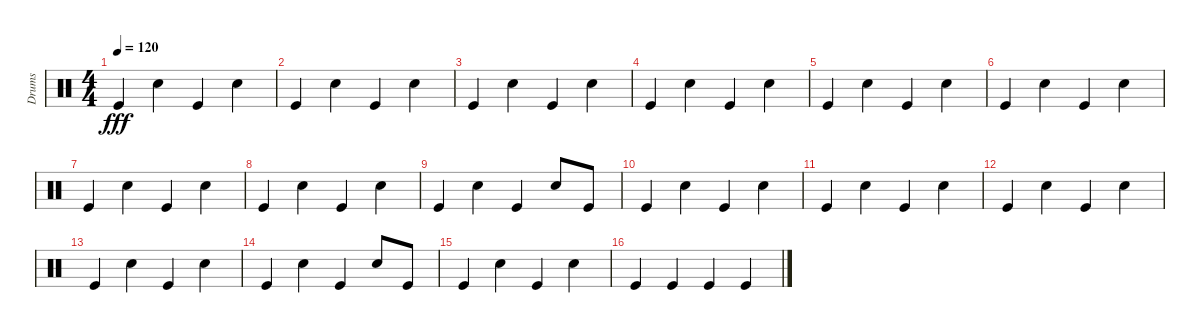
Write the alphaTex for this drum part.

\track ("Drums" "Drums") {instrument percussion}
\staff {score}
\articulation defaults
\ts (4 4)
\tempo 120
\clef neutral
\ks c "Kick (hit)".4{dy fff} "Snare (hit) 2".4 "Kick (hit)".4 "Snare (hit) 2".4
|
"Kick (hit)".4 "Snare (hit) 2".4 "Kick (hit)".4 "Snare (hit) 2".4 |
"Kick (hit)".4 "Snare (hit) 2".4 "Kick (hit)".4 "Snare (hit) 2".4 |
"Kick (hit)".4 "Snare (hit) 2".4 "Kick (hit)".4 "Snare (hit) 2".4 |
"Kick (hit)".4 "Snare (hit) 2".4 "Kick (hit)".4 "Snare (hit) 2".4 |
"Kick (hit)".4 "Snare (hit) 2".4 "Kick (hit)".4 "Snare (hit) 2".4 |
"Kick (hit)".4 "Snare (hit) 2".4 "Kick (hit)".4 "Snare (hit) 2".4 |
"Kick (hit)".4 "Snare (hit) 2".4 "Kick (hit)".4 "Snare (hit) 2".4 |
"Kick (hit)".4 "Snare (hit) 2".4 "Kick (hit)".4 "Snare (hit) 2".8 "Kick (hit)".8 |
"Kick (hit)".4 "Snare (hit) 2".4 "Kick (hit)".4 "Snare (hit) 2".4 |
"Kick (hit)".4 "Snare (hit) 2".4 "Kick (hit)".4 "Snare (hit) 2".4 |
"Kick (hit)".4 "Snare (hit) 2".4 "Kick (hit)".4 "Snare (hit) 2".4 |
"Kick (hit)".4 "Snare (hit) 2".4 "Kick (hit)".4 "Snare (hit) 2".4 |
"Kick (hit)".4 "Snare (hit) 2".4 "Kick (hit)".4 "Snare (hit) 2".8 "Kick (hit)".8 |
"Kick (hit)".4 "Snare (hit) 2".4 "Kick (hit)".4 "Snare (hit) 2".4 |
"Kick (hit)".4 "Kick (hit)".4 "Kick (hit)".4 "Kick (hit)".4
